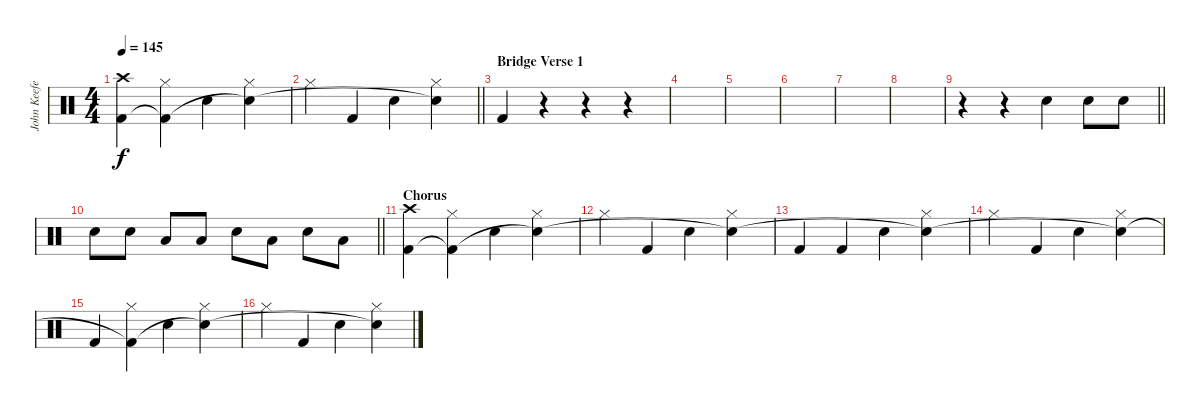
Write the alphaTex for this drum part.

\track ("John Keefe (Percussion)" "John Keefe") {instrument percussion}
\staff {score}
\articulation defaults
\ts (4 4)
\tempo 145
\clef neutral
\ks c
("Crash high (hit)" "Kick (hit) 2").4{dy f} ("Hi-Hat (closed)" "Kick (hit) 2"{t}).4 "Snare (hit) 2".4 ("Hi-Hat (closed)" "Snare (hit) 2"{t}).4 |
\barLineRight lightlight "Hi-Hat (closed)".4 "Kick (hit) 2".4 "Snare (hit) 2".4
("Hi-Hat (closed)" "Snare (hit) 2"{t}).4 |
\section ("" "Bridge Verse 1")
"Kick (hit) 2".4 r.4 r.4 r.4 |
|
|
|
|
|
\barLineRight lightlight
r.4 r.4 "Snare (hit) 2".4 "Snare (hit) 2".8 "Snare (hit) 2".8 |
\section ("" "")
\barLineRight lightlight "Snare (hit) 2".8 "Snare (hit) 2".8 "Low Tom (hit)".8 "Low Tom (hit)".8 "Snare (hit) 2".8 "Low Tom (hit)".8 "Snare (hit) 2".8 "Low Tom (hit)".8
|
\section ("" "Chorus")
("Crash high (hit)" "Kick (hit) 2").4 ("Hi-Hat (closed)" "Kick (hit) 2"{t}).4 "Snare (hit) 2".4 ("Hi-Hat (closed)" "Snare (hit) 2"{t}).4 |
"Hi-Hat (closed)".4 "Kick (hit) 2".4 "Snare (hit) 2".4 ("Hi-Hat (closed)" "Snare (hit) 2"{t}).4 |
"Kick (hit) 2".4 "Kick (hit) 2".4 "Snare (hit) 2".4 ("Hi-Hat (closed)" "Snare (hit) 2"{t}).4 |
"Hi-Hat (closed)".4 "Kick (hit) 2".4 "Snare (hit) 2".4 ("Hi-Hat (closed)" "Snare (hit) 2"{t}).4 |
"Kick (hit) 2".4 ("Hi-Hat (closed)" "Kick (hit) 2"{t}).4 "Snare (hit) 2".4 ("Hi-Hat (closed)" "Snare (hit) 2"{t}).4 |
"Hi-Hat (closed)".4 "Kick (hit) 2".4 "Snare (hit) 2".4 ("Hi-Hat (closed)" "Snare (hit) 2"{t}).4
